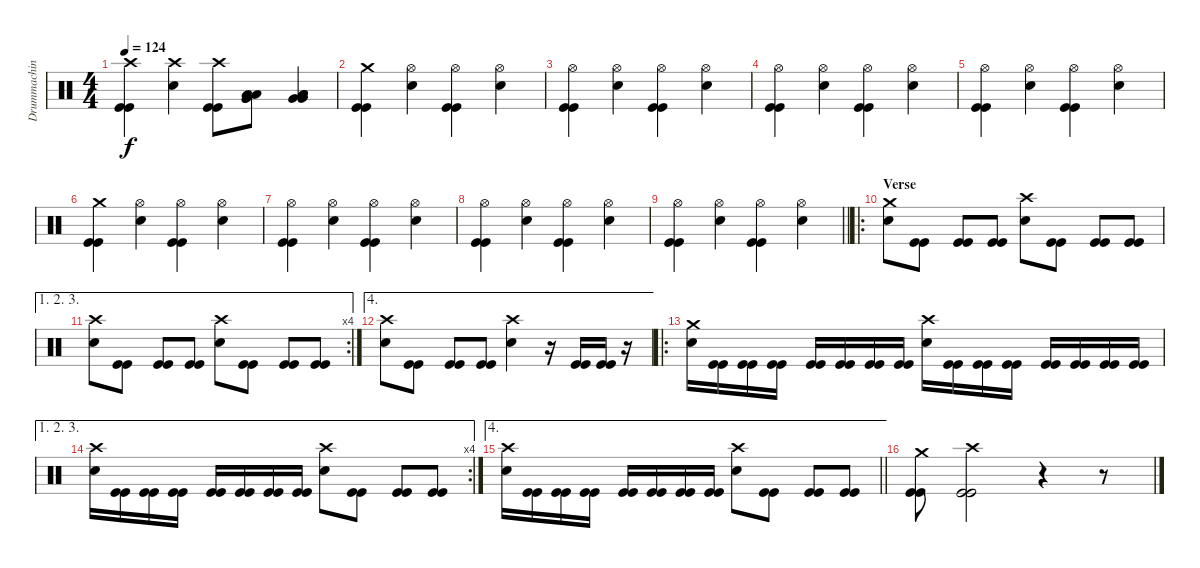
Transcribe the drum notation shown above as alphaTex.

\track ("Drummachine" "Drummachin") {instrument percussion}
\staff {score}
\articulation defaults
\ts (4 4)
\tempo 124
\clef neutral
\ks c
("Crash high (hit)" "Kick (hit)" "Kick (hit)").4{dy f} ("Crash high (hit)" "Snare (hit) 2").4 ("Crash high (hit)" "Kick (hit)" "Kick (hit)").8 ("Low Tom (hit)" "Low Tom (hit)" "Very Low Tom (hit)" "Very Low Tom (hit)").8 ("Low Tom (hit)" "Low Tom (hit)" "Very Low Tom (hit)" "Very Low Tom (hit)").4 |
("Crash medium (hit)" "Kick (hit)" "Kick (hit)").4 ("Hi-Hat (open)" "Snare (hit) 2").4 ("Hi-Hat (open)" "Kick (hit)" "Kick (hit)").4 ("Hi-Hat (open)" "Snare (hit) 2").4 |
("Hi-Hat (open)" "Kick (hit)" "Kick (hit)").4 ("Hi-Hat (open)" "Snare (hit) 2").4 ("Hi-Hat (open)" "Kick (hit)" "Kick (hit)").4 ("Hi-Hat (open)" "Snare (hit) 2").4 |
("Hi-Hat (open)" "Kick (hit)" "Kick (hit)").4 ("Hi-Hat (open)" "Snare (hit) 2").4 ("Hi-Hat (open)" "Kick (hit)" "Kick (hit)").4 ("Hi-Hat (open)" "Snare (hit) 2").4 |
("Hi-Hat (open)" "Kick (hit)" "Kick (hit)").4 ("Hi-Hat (open)" "Snare (hit) 2").4 ("Hi-Hat (open)" "Kick (hit)" "Kick (hit)").4 ("Hi-Hat (open)" "Snare (hit) 2").4 |
("Crash medium (hit)" "Kick (hit)" "Kick (hit)").4 ("Hi-Hat (open)" "Snare (hit) 2").4 ("Hi-Hat (open)" "Kick (hit)" "Kick (hit)").4 ("Hi-Hat (open)" "Snare (hit) 2").4 |
("Hi-Hat (open)" "Kick (hit)" "Kick (hit)").4 ("Hi-Hat (open)" "Snare (hit) 2").4 ("Hi-Hat (open)" "Kick (hit)" "Kick (hit)").4 ("Hi-Hat (open)" "Snare (hit) 2").4 |
("Hi-Hat (open)" "Kick (hit)" "Kick (hit)").4 ("Hi-Hat (open)" "Snare (hit) 2").4 ("Hi-Hat (open)" "Kick (hit)" "Kick (hit)").4 ("Hi-Hat (open)" "Snare (hit) 2").4 |
\barLineRight lightlight
("Hi-Hat (open)" "Kick (hit)" "Kick (hit)").4 ("Hi-Hat (open)" "Snare (hit) 2").4 ("Hi-Hat (open)" "Kick (hit)" "Kick (hit)").4 ("Hi-Hat (open)" "Snare (hit) 2").4 |
\ro
\section ("" "Verse")
("Crash medium (hit)" "Snare (hit) 2").8 ("Kick (hit)" "Kick (hit)").8 ("Kick (hit)" "Kick (hit)").8 ("Kick (hit)" "Kick (hit)").8 ("Crash high (hit)" "Snare (hit) 2").8 ("Kick (hit)" "Kick (hit)").8 ("Kick (hit)" "Kick (hit)").8 ("Kick (hit)" "Kick (hit)").8 |
\ae (1 2 3)
\rc 4
("Crash high (hit)" "Snare (hit) 2").8 ("Kick (hit)" "Kick (hit)").8 ("Kick (hit)" "Kick (hit)").8 ("Kick (hit)" "Kick (hit)").8 ("Crash high (hit)" "Snare (hit) 2").8 ("Kick (hit)" "Kick (hit)").8 ("Kick (hit)" "Kick (hit)").8 ("Kick (hit)" "Kick (hit)").8 |
\ae 4
("Crash high (hit)" "Snare (hit) 2").8 ("Kick (hit)" "Kick (hit)").8 ("Kick (hit)" "Kick (hit)").8 ("Kick (hit)" "Kick (hit)").8 ("Crash high (hit)" "Snare (hit) 2").4 r.16 ("Kick (hit)" "Kick (hit)").16 ("Kick (hit)" "Kick (hit)").16 r.16 |
\ro
("Crash medium (hit)" "Snare (hit) 2").16 ("Kick (hit)" "Kick (hit)").16 ("Kick (hit)" "Kick (hit)").16 ("Kick (hit)" "Kick (hit)").16 ("Kick (hit)" "Kick (hit)").16 ("Kick (hit)" "Kick (hit)").16 ("Kick (hit)" "Kick (hit)").16 ("Kick (hit)" "Kick (hit)").16 ("Crash high (hit)" "Snare (hit) 2").16 ("Kick (hit)" "Kick (hit)").16 ("Kick (hit)" "Kick (hit)").16 ("Kick (hit)" "Kick (hit)").16 ("Kick (hit)" "Kick (hit)").16 ("Kick (hit)" "Kick (hit)").16 ("Kick (hit)" "Kick (hit)").16 ("Kick (hit)" "Kick (hit)").16 |
\ae (1 2 3)
\rc 4
("Crash high (hit)" "Snare (hit) 2").16 ("Kick (hit)" "Kick (hit)").16 ("Kick (hit)" "Kick (hit)").16 ("Kick (hit)" "Kick (hit)").16 ("Kick (hit)" "Kick (hit)").16 ("Kick (hit)" "Kick (hit)").16 ("Kick (hit)" "Kick (hit)").16 ("Kick (hit)" "Kick (hit)").16 ("Crash high (hit)" "Snare (hit) 2").8 ("Kick (hit)" "Kick (hit)").8 ("Kick (hit)" "Kick (hit)").8 ("Kick (hit)" "Kick (hit)").8 |
\ae 4
\barLineRight lightlight
("Crash high (hit)" "Snare (hit) 2").16 ("Kick (hit)" "Kick (hit)").16 ("Kick (hit)" "Kick (hit)").16 ("Kick (hit)" "Kick (hit)").16 ("Kick (hit)" "Kick (hit)").16 ("Kick (hit)" "Kick (hit)").16 ("Kick (hit)" "Kick (hit)").16 ("Kick (hit)" "Kick (hit)").16 ("Crash high (hit)" "Snare (hit) 2").8 ("Kick (hit)" "Kick (hit)").8 ("Kick (hit)" "Kick (hit)").8 ("Kick (hit)" "Kick (hit)").8 |
("Crash medium (hit)" "Kick (hit)" "Kick (hit)").8 ("Crash high (hit)" "Kick (hit)" "Kick (hit)").2 r.4 r.8
